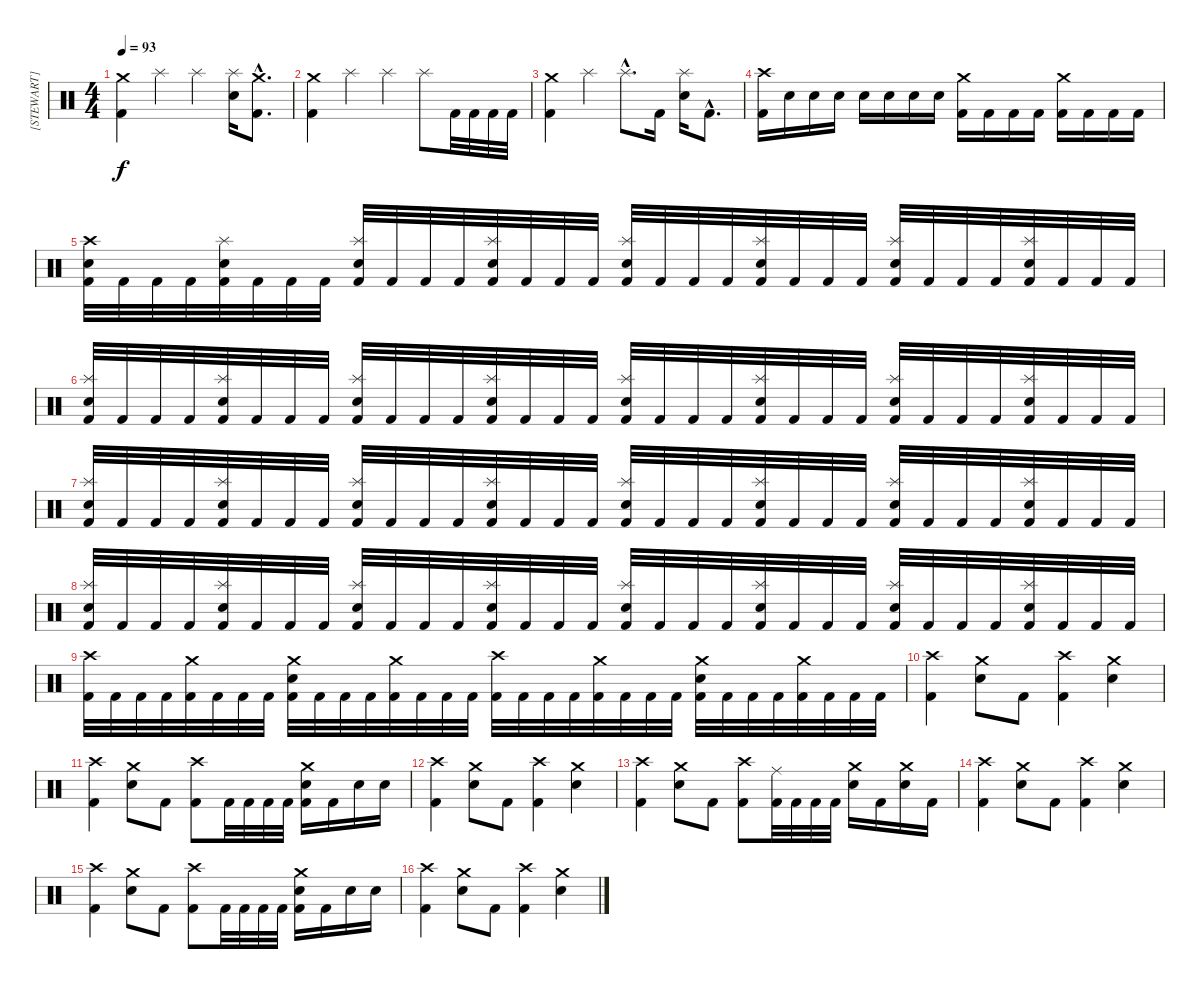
\track ("[STEWART]" "[STEWART]") {instrument percussion}
\staff {score}
\articulation defaults
\ts (4 4)
\tempo 93
\clef neutral
\ks c
("Crash medium (hit)" "Kick (hit) 2").4{dy f} "Splash (hit)".4 "Splash (hit)".4 ("Splash (hit)" "Electric Snare (hit)").16 ("Crash medium (hit)"{hac} "Kick (hit) 2"{hac}).8{d} |
("Crash medium (hit)" "Kick (hit) 2").4 "Splash (hit)".4 "Splash (hit)".4 "Splash (hit)".8 "Kick (hit) 2".32 "Kick (hit) 2".32 "Kick (hit) 2".32 "Kick (hit) 2".32 |
("Crash medium (hit)" "Kick (hit) 2").4 "Splash (hit)".4 "Splash (hit)"{hac}.8{d} "Kick (hit) 2".16 ("Splash (hit)" "Electric Snare (hit)").16 "Kick (hit) 2"{hac}.8{d} |
("Crash high (hit)" "Kick (hit) 2").16 "Electric Snare (hit)".16 "Electric Snare (hit)".16 "Electric Snare (hit)".16 "Electric Snare (hit)".16 "Electric Snare (hit)".16 "Electric Snare (hit)".16 "Electric Snare (hit)".16 ("Crash medium (hit)" "Kick (hit) 2").16 "Kick (hit) 2".16 "Kick (hit) 2".16 "Kick (hit) 2".16 ("Crash medium (hit)" "Kick (hit) 2").16 "Kick (hit) 2".16 "Kick (hit) 2".16 "Kick (hit) 2".16 |
("Crash high (hit)" "Electric Snare (hit)" "Kick (hit) 2").32 "Kick (hit) 2".32 "Kick (hit) 2".32 "Kick (hit) 2".32 ("Splash (hit)" "Electric Snare (hit)" "Kick (hit) 2").32 "Kick (hit) 2".32 "Kick (hit) 2".32 "Kick (hit) 2".32 ("Splash (hit)" "Electric Snare (hit)" "Kick (hit) 2").32 "Kick (hit) 2".32 "Kick (hit) 2".32 "Kick (hit) 2".32 ("Splash (hit)" "Electric Snare (hit)" "Kick (hit) 2").32 "Kick (hit) 2".32 "Kick (hit) 2".32 "Kick (hit) 2".32 ("Splash (hit)" "Electric Snare (hit)" "Kick (hit) 2").32 "Kick (hit) 2".32 "Kick (hit) 2".32 "Kick (hit) 2".32 ("Splash (hit)" "Electric Snare (hit)" "Kick (hit) 2").32 "Kick (hit) 2".32 "Kick (hit) 2".32 "Kick (hit) 2".32 ("Splash (hit)" "Electric Snare (hit)" "Kick (hit) 2").32 "Kick (hit) 2".32 "Kick (hit) 2".32 "Kick (hit) 2".32 ("Splash (hit)" "Electric Snare (hit)" "Kick (hit) 2").32 "Kick (hit) 2".32 "Kick (hit) 2".32 "Kick (hit) 2".32 |
("Splash (hit)" "Electric Snare (hit)" "Kick (hit) 2").32 "Kick (hit) 2".32 "Kick (hit) 2".32 "Kick (hit) 2".32 ("Splash (hit)" "Electric Snare (hit)" "Kick (hit) 2").32 "Kick (hit) 2".32 "Kick (hit) 2".32 "Kick (hit) 2".32 ("Splash (hit)" "Electric Snare (hit)" "Kick (hit) 2").32 "Kick (hit) 2".32 "Kick (hit) 2".32 "Kick (hit) 2".32 ("Splash (hit)" "Electric Snare (hit)" "Kick (hit) 2").32 "Kick (hit) 2".32 "Kick (hit) 2".32 "Kick (hit) 2".32 ("Splash (hit)" "Electric Snare (hit)" "Kick (hit) 2").32 "Kick (hit) 2".32 "Kick (hit) 2".32 "Kick (hit) 2".32 ("Splash (hit)" "Electric Snare (hit)" "Kick (hit) 2").32 "Kick (hit) 2".32 "Kick (hit) 2".32 "Kick (hit) 2".32 ("Splash (hit)" "Electric Snare (hit)" "Kick (hit) 2").32 "Kick (hit) 2".32 "Kick (hit) 2".32 "Kick (hit) 2".32 ("Splash (hit)" "Electric Snare (hit)" "Kick (hit) 2").32 "Kick (hit) 2".32 "Kick (hit) 2".32 "Kick (hit) 2".32 |
("Splash (hit)" "Electric Snare (hit)" "Kick (hit) 2").32 "Kick (hit) 2".32 "Kick (hit) 2".32 "Kick (hit) 2".32 ("Splash (hit)" "Electric Snare (hit)" "Kick (hit) 2").32 "Kick (hit) 2".32 "Kick (hit) 2".32 "Kick (hit) 2".32 ("Splash (hit)" "Electric Snare (hit)" "Kick (hit) 2").32 "Kick (hit) 2".32 "Kick (hit) 2".32 "Kick (hit) 2".32 ("Splash (hit)" "Electric Snare (hit)" "Kick (hit) 2").32 "Kick (hit) 2".32 "Kick (hit) 2".32 "Kick (hit) 2".32 ("Splash (hit)" "Electric Snare (hit)" "Kick (hit) 2").32 "Kick (hit) 2".32 "Kick (hit) 2".32 "Kick (hit) 2".32 ("Splash (hit)" "Electric Snare (hit)" "Kick (hit) 2").32 "Kick (hit) 2".32 "Kick (hit) 2".32 "Kick (hit) 2".32 ("Splash (hit)" "Electric Snare (hit)" "Kick (hit) 2").32 "Kick (hit) 2".32 "Kick (hit) 2".32 "Kick (hit) 2".32 ("Splash (hit)" "Electric Snare (hit)" "Kick (hit) 2").32 "Kick (hit) 2".32 "Kick (hit) 2".32 "Kick (hit) 2".32 |
("Splash (hit)" "Electric Snare (hit)" "Kick (hit) 2").32 "Kick (hit) 2".32 "Kick (hit) 2".32 "Kick (hit) 2".32 ("Splash (hit)" "Electric Snare (hit)" "Kick (hit) 2").32 "Kick (hit) 2".32 "Kick (hit) 2".32 "Kick (hit) 2".32 ("Splash (hit)" "Electric Snare (hit)" "Kick (hit) 2").32 "Kick (hit) 2".32 "Kick (hit) 2".32 "Kick (hit) 2".32 ("Splash (hit)" "Electric Snare (hit)" "Kick (hit) 2").32 "Kick (hit) 2".32 "Kick (hit) 2".32 "Kick (hit) 2".32 ("Splash (hit)" "Electric Snare (hit)" "Kick (hit) 2").32 "Kick (hit) 2".32 "Kick (hit) 2".32 "Kick (hit) 2".32 ("Splash (hit)" "Electric Snare (hit)" "Kick (hit) 2").32 "Kick (hit) 2".32 "Kick (hit) 2".32 "Kick (hit) 2".32 ("Splash (hit)" "Electric Snare (hit)" "Kick (hit) 2").32 "Kick (hit) 2".32 "Kick (hit) 2".32 "Kick (hit) 2".32 ("Splash (hit)" "Electric Snare (hit)" "Kick (hit) 2").32 "Kick (hit) 2".32 "Kick (hit) 2".32 "Kick (hit) 2".32 |
("Crash high (hit)" "Kick (hit) 2").32 "Kick (hit) 2".32 "Kick (hit) 2".32 "Kick (hit) 2".32 ("Crash medium (hit)" "Kick (hit) 2").32 "Kick (hit) 2".32 "Kick (hit) 2".32 "Kick (hit) 2".32 ("Crash medium (hit)" "Electric Snare (hit)" "Kick (hit) 2").32 "Kick (hit) 2".32 "Kick (hit) 2".32 "Kick (hit) 2".32 ("Crash medium (hit)" "Kick (hit) 2").32 "Kick (hit) 2".32 "Kick (hit) 2".32 "Kick (hit) 2".32 ("Crash high (hit)" "Kick (hit) 2").32 "Kick (hit) 2".32 "Kick (hit) 2".32 "Kick (hit) 2".32 ("Crash medium (hit)" "Kick (hit) 2").32 "Kick (hit) 2".32 "Kick (hit) 2".32 "Kick (hit) 2".32 ("Crash medium (hit)" "Electric Snare (hit)" "Kick (hit) 2").32 "Kick (hit) 2".32 "Kick (hit) 2".32 "Kick (hit) 2".32 ("Crash medium (hit)" "Kick (hit) 2").32 "Kick (hit) 2".32 "Kick (hit) 2".32 "Kick (hit) 2".32 |
("Crash high (hit)" "Kick (hit) 2").4 ("Crash medium (hit)" "Electric Snare (hit)").8 "Kick (hit) 2".8 ("Crash high (hit)" "Kick (hit) 2").4 ("Crash medium (hit)" "Electric Snare (hit)").4 |
("Crash high (hit)" "Kick (hit) 2").4 ("Crash medium (hit)" "Electric Snare (hit)").8 "Kick (hit) 2".8 ("Crash high (hit)" "Kick (hit) 2").8 "Kick (hit) 2".32 "Kick (hit) 2".32 "Kick (hit) 2".32 "Kick (hit) 2".32 ("Crash medium (hit)" "Electric Snare (hit)" "Kick (hit) 2").16 "Kick (hit) 2".16 "Electric Snare (hit)".16 "Electric Snare (hit)".16 |
("Crash high (hit)" "Kick (hit) 2").4 ("Crash medium (hit)" "Electric Snare (hit)").8 "Kick (hit) 2".8 ("Crash high (hit)" "Kick (hit) 2").4 ("Crash medium (hit)" "Electric Snare (hit)").4 |
("Crash high (hit)" "Kick (hit) 2").4 ("Crash medium (hit)" "Electric Snare (hit)").8 "Kick (hit) 2".8 ("Crash high (hit)" "Kick (hit) 2").8 ("Ride (middle)" "Kick (hit) 2").32 "Kick (hit) 2".32 "Kick (hit) 2".32 "Kick (hit) 2".32 ("Crash medium (hit)" "Electric Snare (hit)").16 "Kick (hit) 2".16 ("Crash medium (hit)" "Electric Snare (hit)").16 "Kick (hit) 2".16 |
("Crash high (hit)" "Kick (hit) 2").4 ("Crash medium (hit)" "Electric Snare (hit)").8 "Kick (hit) 2".8 ("Crash high (hit)" "Kick (hit) 2").4 ("Crash medium (hit)" "Electric Snare (hit)").4 |
("Crash high (hit)" "Kick (hit) 2").4 ("Crash medium (hit)" "Electric Snare (hit)").8 "Kick (hit) 2".8 ("Crash high (hit)" "Kick (hit) 2").8 "Kick (hit) 2".32 "Kick (hit) 2".32 "Kick (hit) 2".32 "Kick (hit) 2".32 ("Crash medium (hit)" "Electric Snare (hit)" "Kick (hit) 2").16 "Kick (hit) 2".16 "Electric Snare (hit)".16 "Electric Snare (hit)".16 |
("Crash high (hit)" "Kick (hit) 2").4 ("Crash medium (hit)" "Electric Snare (hit)").8 "Kick (hit) 2".8 ("Crash high (hit)" "Kick (hit) 2").4 ("Crash medium (hit)" "Electric Snare (hit)").4
